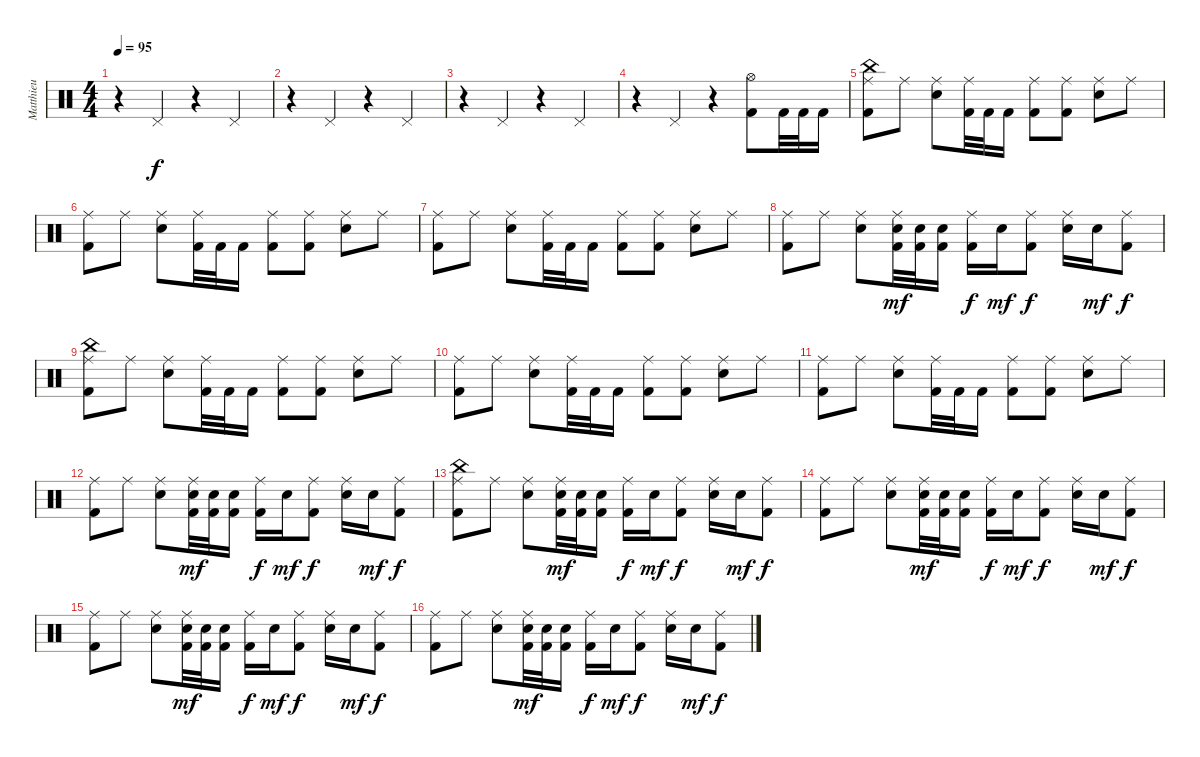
\track ("Matthieu" "Matthieu") {instrument percussion}
\staff {score}
\articulation defaults
\ts (4 4)
\tempo 95
\clef neutral
\ks c
r.4{dy f} "Pedal Hi-Hat (hit)".4 r.4 "Pedal Hi-Hat (hit)".4 |
r.4 "Pedal Hi-Hat (hit)".4 r.4 "Pedal Hi-Hat (hit)".4 |
r.4 "Pedal Hi-Hat (hit)".4 r.4 "Pedal Hi-Hat (hit)".4 |
r.4 "Pedal Hi-Hat (hit)".4 r.4 ("Hi-Hat (open)" "Kick (hit) 2").8 "Kick (hit) 2".32 "Kick (hit) 2".32 "Kick (hit) 2".16 |
("China (hit)" "Ride (middle)" "Kick (hit) 2").8 "Ride (middle)".8 ("Ride (middle)" "Snare (hit) 2").8 ("Ride (middle)" "Kick (hit) 2").32 "Kick (hit) 2".32 "Kick (hit) 2".16 ("Ride (middle)" "Kick (hit) 2").8 ("Ride (middle)" "Kick (hit) 2").8 ("Ride (middle)" "Snare (hit) 2").8 "Ride (middle)".8 |
("Ride (middle)" "Kick (hit) 2").8 "Ride (middle)".8 ("Ride (middle)" "Snare (hit) 2").8 ("Ride (middle)" "Kick (hit) 2").32 "Kick (hit) 2".32 "Kick (hit) 2".16 ("Ride (middle)" "Kick (hit) 2").8 ("Ride (middle)" "Kick (hit) 2").8 ("Ride (middle)" "Snare (hit) 2").8 "Ride (middle)".8 |
("Ride (middle)" "Kick (hit) 2").8 "Ride (middle)".8 ("Ride (middle)" "Snare (hit) 2").8 ("Ride (middle)" "Kick (hit) 2").32 "Kick (hit) 2".32 "Kick (hit) 2".16 ("Ride (middle)" "Kick (hit) 2").8 ("Ride (middle)" "Kick (hit) 2").8 ("Ride (middle)" "Snare (hit) 2").8 "Ride (middle)".8 |
("Ride (middle)" "Kick (hit) 2").8 "Ride (middle)".8 ("Ride (middle)" "Snare (hit) 2").8 ("Ride (middle)" "Electric Snare (hit)" "Kick (hit) 2").32{dy mf} ("Electric Snare (hit)" "Kick (hit) 2").32 ("Electric Snare (hit)" "Kick (hit) 2").16 ("Ride (middle)" "Kick (hit) 2").16{dy f} "Electric Snare (hit)".16{dy mf} ("Ride (middle)" "Kick (hit) 2").8{dy f} ("Ride (middle)" "Snare (hit) 2").16 "Electric Snare (hit)".16{dy mf} ("Ride (middle)" "Kick (hit) 2").8{dy f} |
("China (hit)" "Ride (middle)" "Kick (hit) 2").8 "Ride (middle)".8 ("Ride (middle)" "Snare (hit) 2").8 ("Ride (middle)" "Kick (hit) 2").32 "Kick (hit) 2".32 "Kick (hit) 2".16 ("Ride (middle)" "Kick (hit) 2").8 ("Ride (middle)" "Kick (hit) 2").8 ("Ride (middle)" "Snare (hit) 2").8 "Ride (middle)".8 |
("Ride (middle)" "Kick (hit) 2").8 "Ride (middle)".8 ("Ride (middle)" "Snare (hit) 2").8 ("Ride (middle)" "Kick (hit) 2").32 "Kick (hit) 2".32 "Kick (hit) 2".16 ("Ride (middle)" "Kick (hit) 2").8 ("Ride (middle)" "Kick (hit) 2").8 ("Ride (middle)" "Snare (hit) 2").8 "Ride (middle)".8 |
("Ride (middle)" "Kick (hit) 2").8 "Ride (middle)".8 ("Ride (middle)" "Snare (hit) 2").8 ("Ride (middle)" "Kick (hit) 2").32 "Kick (hit) 2".32 "Kick (hit) 2".16 ("Ride (middle)" "Kick (hit) 2").8 ("Ride (middle)" "Kick (hit) 2").8 ("Ride (middle)" "Snare (hit) 2").8 "Ride (middle)".8 |
("Ride (middle)" "Kick (hit) 2").8 "Ride (middle)".8 ("Ride (middle)" "Snare (hit) 2").8 ("Ride (middle)" "Electric Snare (hit)" "Kick (hit) 2").32{dy mf} ("Electric Snare (hit)" "Kick (hit) 2").32 ("Electric Snare (hit)" "Kick (hit) 2").16 ("Ride (middle)" "Kick (hit) 2").16{dy f} "Electric Snare (hit)".16{dy mf} ("Ride (middle)" "Kick (hit) 2").8{dy f} ("Ride (middle)" "Snare (hit) 2").16 "Electric Snare (hit)".16{dy mf} ("Ride (middle)" "Kick (hit) 2").8{dy f} |
("China (hit)" "Ride (middle)" "Kick (hit) 2").8 "Ride (middle)".8 ("Ride (middle)" "Snare (hit) 2").8 ("Ride (middle)" "Electric Snare (hit)" "Kick (hit) 2").32{dy mf} ("Electric Snare (hit)" "Kick (hit) 2").32 ("Electric Snare (hit)" "Kick (hit) 2").16 ("Ride (middle)" "Kick (hit) 2").16{dy f} "Electric Snare (hit)".16{dy mf} ("Ride (middle)" "Kick (hit) 2").8{dy f} ("Ride (middle)" "Snare (hit) 2").16 "Electric Snare (hit)".16{dy mf} ("Ride (middle)" "Kick (hit) 2").8{dy f} |
("Ride (middle)" "Kick (hit) 2").8 "Ride (middle)".8 ("Ride (middle)" "Snare (hit) 2").8 ("Ride (middle)" "Electric Snare (hit)" "Kick (hit) 2").32{dy mf} ("Electric Snare (hit)" "Kick (hit) 2").32 ("Electric Snare (hit)" "Kick (hit) 2").16 ("Ride (middle)" "Kick (hit) 2").16{dy f} "Electric Snare (hit)".16{dy mf} ("Ride (middle)" "Kick (hit) 2").8{dy f} ("Ride (middle)" "Snare (hit) 2").16 "Electric Snare (hit)".16{dy mf} ("Ride (middle)" "Kick (hit) 2").8{dy f} |
("Ride (middle)" "Kick (hit) 2").8 "Ride (middle)".8 ("Ride (middle)" "Snare (hit) 2").8 ("Ride (middle)" "Electric Snare (hit)" "Kick (hit) 2").32{dy mf} ("Electric Snare (hit)" "Kick (hit) 2").32 ("Electric Snare (hit)" "Kick (hit) 2").16 ("Ride (middle)" "Kick (hit) 2").16{dy f} "Electric Snare (hit)".16{dy mf} ("Ride (middle)" "Kick (hit) 2").8{dy f} ("Ride (middle)" "Snare (hit) 2").16 "Electric Snare (hit)".16{dy mf} ("Ride (middle)" "Kick (hit) 2").8{dy f} |
("Ride (middle)" "Kick (hit) 2").8 "Ride (middle)".8 ("Ride (middle)" "Snare (hit) 2").8 ("Ride (middle)" "Electric Snare (hit)" "Kick (hit) 2").32{dy mf} ("Electric Snare (hit)" "Kick (hit) 2").32 ("Electric Snare (hit)" "Kick (hit) 2").16 ("Ride (middle)" "Kick (hit) 2").16{dy f} "Electric Snare (hit)".16{dy mf} ("Ride (middle)" "Kick (hit) 2").8{dy f} ("Ride (middle)" "Snare (hit) 2").16 "Electric Snare (hit)".16{dy mf} ("Ride (middle)" "Kick (hit) 2").8{dy f}
